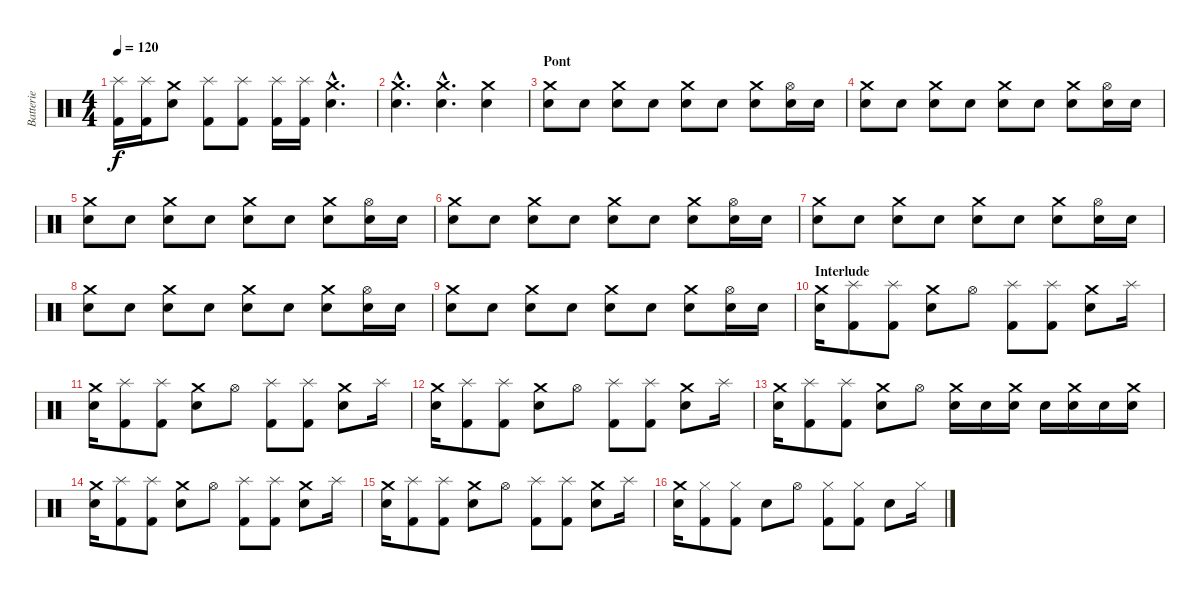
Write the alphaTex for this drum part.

\track ("Batterie" "Batterie") {instrument percussion}
\staff {score}
\articulation defaults
\ts (4 4)
\tempo 120
\clef neutral
\ks c
("Splash (hit)" "Kick (hit) 2").16{dy f} ("Splash (hit)" "Kick (hit) 2").16 ("Crash medium (hit)" "Snare (hit) 2").8 ("Splash (hit)" "Kick (hit) 2").8 ("Splash (hit)" "Kick (hit) 2").8 ("Splash (hit)" "Kick (hit) 2").16 ("Splash (hit)" "Kick (hit) 2").16 ("Crash medium (hit)"{hac} "Snare (hit) 2"{hac}).4{d} |
("Crash medium (hit)"{hac} "Snare (hit) 2"{hac}).4{d} ("Crash medium (hit)"{hac} "Snare (hit) 2"{hac}).4{d} ("Crash medium (hit)" "Snare (hit) 2").4 |
\section ("" "Pont")
("Crash medium (hit)" "Snare (hit) 2").8 "Snare (hit) 2".8 ("Crash medium (hit)" "Snare (hit) 2").8 "Snare (hit) 2".8 ("Crash medium (hit)" "Snare (hit) 2").8 "Snare (hit) 2".8 ("Crash medium (hit)" "Snare (hit) 2").8 ("Hi-Hat (open)" "Snare (hit) 2").16 "Snare (hit) 2".16 |
("Crash medium (hit)" "Snare (hit) 2").8 "Snare (hit) 2".8 ("Crash medium (hit)" "Snare (hit) 2").8 "Snare (hit) 2".8 ("Crash medium (hit)" "Snare (hit) 2").8 "Snare (hit) 2".8 ("Crash medium (hit)" "Snare (hit) 2").8 ("Hi-Hat (open)" "Snare (hit) 2").16 "Snare (hit) 2".16 |
("Crash medium (hit)" "Snare (hit) 2").8 "Snare (hit) 2".8 ("Crash medium (hit)" "Snare (hit) 2").8 "Snare (hit) 2".8 ("Crash medium (hit)" "Snare (hit) 2").8 "Snare (hit) 2".8 ("Crash medium (hit)" "Snare (hit) 2").8 ("Hi-Hat (open)" "Snare (hit) 2").16 "Snare (hit) 2".16 |
("Crash medium (hit)" "Snare (hit) 2").8 "Snare (hit) 2".8 ("Crash medium (hit)" "Snare (hit) 2").8 "Snare (hit) 2".8 ("Crash medium (hit)" "Snare (hit) 2").8 "Snare (hit) 2".8 ("Crash medium (hit)" "Snare (hit) 2").8 ("Hi-Hat (open)" "Snare (hit) 2").16 "Snare (hit) 2".16 |
("Crash medium (hit)" "Snare (hit) 2").8 "Snare (hit) 2".8 ("Crash medium (hit)" "Snare (hit) 2").8 "Snare (hit) 2".8 ("Crash medium (hit)" "Snare (hit) 2").8 "Snare (hit) 2".8 ("Crash medium (hit)" "Snare (hit) 2").8 ("Hi-Hat (open)" "Snare (hit) 2").16 "Snare (hit) 2".16 |
("Crash medium (hit)" "Snare (hit) 2").8 "Snare (hit) 2".8 ("Crash medium (hit)" "Snare (hit) 2").8 "Snare (hit) 2".8 ("Crash medium (hit)" "Snare (hit) 2").8 "Snare (hit) 2".8 ("Crash medium (hit)" "Snare (hit) 2").8 ("Hi-Hat (open)" "Snare (hit) 2").16 "Snare (hit) 2".16 |
("Crash medium (hit)" "Snare (hit) 2").8 "Snare (hit) 2".8 ("Crash medium (hit)" "Snare (hit) 2").8 "Snare (hit) 2".8 ("Crash medium (hit)" "Snare (hit) 2").8 "Snare (hit) 2".8 ("Crash medium (hit)" "Snare (hit) 2").8 ("Hi-Hat (open)" "Snare (hit) 2").16 "Snare (hit) 2".16 |
\section ("" "Interlude")
("Crash medium (hit)" "Snare (hit) 2").16 ("Splash (hit)" "Kick (hit) 2").8 ("Splash (hit)" "Kick (hit) 2").8 ("Crash medium (hit)" "Snare (hit) 2").8 "Hi-Hat (open)".8 ("Splash (hit)" "Kick (hit) 2").8 ("Splash (hit)" "Kick (hit) 2").8 ("Crash medium (hit)" "Snare (hit) 2").8 "Splash (hit)".16 |
("Crash medium (hit)" "Snare (hit) 2").16 ("Splash (hit)" "Kick (hit) 2").8 ("Splash (hit)" "Kick (hit) 2").8 ("Crash medium (hit)" "Snare (hit) 2").8 "Hi-Hat (open)".8 ("Splash (hit)" "Kick (hit) 2").8 ("Splash (hit)" "Kick (hit) 2").8 ("Crash medium (hit)" "Snare (hit) 2").8 "Splash (hit)".16 |
("Crash medium (hit)" "Snare (hit) 2").16 ("Splash (hit)" "Kick (hit) 2").8 ("Splash (hit)" "Kick (hit) 2").8 ("Crash medium (hit)" "Snare (hit) 2").8 "Hi-Hat (open)".8 ("Splash (hit)" "Kick (hit) 2").8 ("Splash (hit)" "Kick (hit) 2").8 ("Crash medium (hit)" "Snare (hit) 2").8 "Splash (hit)".16 |
("Crash medium (hit)" "Snare (hit) 2").16 ("Splash (hit)" "Kick (hit) 2").8 ("Splash (hit)" "Kick (hit) 2").8 ("Crash medium (hit)" "Snare (hit) 2").8 "Hi-Hat (open)".8 ("Crash medium (hit)" "Snare (hit) 2").16 "Snare (hit) 2".16 ("Crash medium (hit)" "Snare (hit) 2").16 "Snare (hit) 2".16 ("Crash medium (hit)" "Snare (hit) 2").16 "Snare (hit) 2".16 ("Crash medium (hit)" "Snare (hit) 2").16 |
("Crash medium (hit)" "Snare (hit) 2").16 ("Splash (hit)" "Kick (hit) 2").8 ("Splash (hit)" "Kick (hit) 2").8 ("Crash medium (hit)" "Snare (hit) 2").8 "Hi-Hat (open)".8 ("Splash (hit)" "Kick (hit) 2").8 ("Splash (hit)" "Kick (hit) 2").8 ("Crash medium (hit)" "Snare (hit) 2").8 "Splash (hit)".16 |
("Crash medium (hit)" "Snare (hit) 2").16 ("Splash (hit)" "Kick (hit) 2").8 ("Splash (hit)" "Kick (hit) 2").8 ("Crash medium (hit)" "Snare (hit) 2").8 "Hi-Hat (open)".8 ("Splash (hit)" "Kick (hit) 2").8 ("Splash (hit)" "Kick (hit) 2").8 ("Crash medium (hit)" "Snare (hit) 2").8 "Splash (hit)".16 |
("Crash medium (hit)" "Snare (hit) 2").16 ("Hi-Hat (closed)" "Kick (hit) 2").8 ("Hi-Hat (closed)" "Kick (hit) 2").8 "Snare (hit) 2".8 "Hi-Hat (open)".8 ("Hi-Hat (closed)" "Kick (hit) 2").8 ("Hi-Hat (closed)" "Kick (hit) 2").8 "Snare (hit) 2".8 "Hi-Hat (closed)".16
